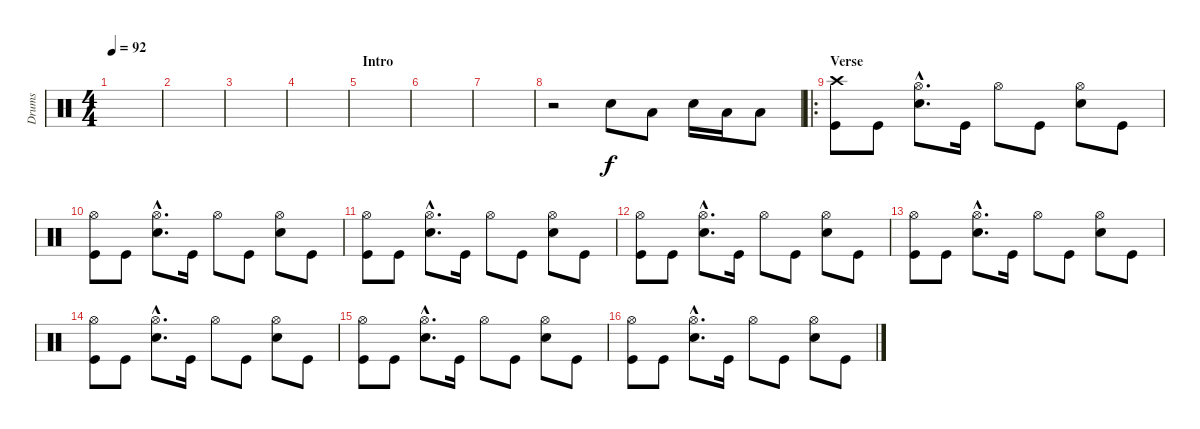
\track ("Drums" "Drums") {instrument percussion}
\staff {score}
\articulation defaults
\ts (4 4)
\tempo 92
\clef neutral
\ks c
|
|
|
|
\section ("" "Intro")
|
|
|
r.2 "Snare (hit) 2".8 "Low Tom (hit)".8 "Snare (hit) 2".16 "Low Floor Tom (hit)".16 "Low Floor Tom (hit)".8 |
\ro
\section ("" "Verse")
("Crash high (hit)" "Kick (hit)").8 "Kick (hit)".8 ("Hi-Hat (open)"{hac} "Snare (hit) 2"{hac}).8{d} "Kick (hit)".16 "Hi-Hat (open)".8 "Kick (hit)".8 ("Hi-Hat (open)" "Snare (hit) 2").8 "Kick (hit)".8 |
("Hi-Hat (open)" "Kick (hit)").8 "Kick (hit)".8 ("Hi-Hat (open)"{hac} "Snare (hit) 2"{hac}).8{d} "Kick (hit)".16 "Hi-Hat (open)".8 "Kick (hit)".8 ("Hi-Hat (open)" "Snare (hit) 2").8 "Kick (hit)".8 |
("Hi-Hat (open)" "Kick (hit)").8 "Kick (hit)".8 ("Hi-Hat (open)"{hac} "Snare (hit) 2"{hac}).8{d} "Kick (hit)".16 "Hi-Hat (open)".8 "Kick (hit)".8 ("Hi-Hat (open)" "Snare (hit) 2").8 "Kick (hit)".8 |
("Hi-Hat (open)" "Kick (hit)").8 "Kick (hit)".8 ("Hi-Hat (open)"{hac} "Snare (hit) 2"{hac}).8{d} "Kick (hit)".16 "Hi-Hat (open)".8 "Kick (hit)".8 ("Hi-Hat (open)" "Snare (hit) 2").8 "Kick (hit)".8 |
("Hi-Hat (open)" "Kick (hit)").8 "Kick (hit)".8 ("Hi-Hat (open)"{hac} "Snare (hit) 2"{hac}).8{d} "Kick (hit)".16 "Hi-Hat (open)".8 "Kick (hit)".8 ("Hi-Hat (open)" "Snare (hit) 2").8 "Kick (hit)".8 |
("Hi-Hat (open)" "Kick (hit)").8 "Kick (hit)".8 ("Hi-Hat (open)"{hac} "Snare (hit) 2"{hac}).8{d} "Kick (hit)".16 "Hi-Hat (open)".8 "Kick (hit)".8 ("Hi-Hat (open)" "Snare (hit) 2").8 "Kick (hit)".8 |
("Hi-Hat (open)" "Kick (hit)").8 "Kick (hit)".8 ("Hi-Hat (open)"{hac} "Snare (hit) 2"{hac}).8{d} "Kick (hit)".16 "Hi-Hat (open)".8 "Kick (hit)".8 ("Hi-Hat (open)" "Snare (hit) 2").8 "Kick (hit)".8 |
("Hi-Hat (open)" "Kick (hit)").8 "Kick (hit)".8 ("Hi-Hat (open)"{hac} "Snare (hit) 2"{hac}).8{d} "Kick (hit)".16 "Hi-Hat (open)".8 "Kick (hit)".8 ("Hi-Hat (open)" "Snare (hit) 2").8 "Kick (hit)".8
